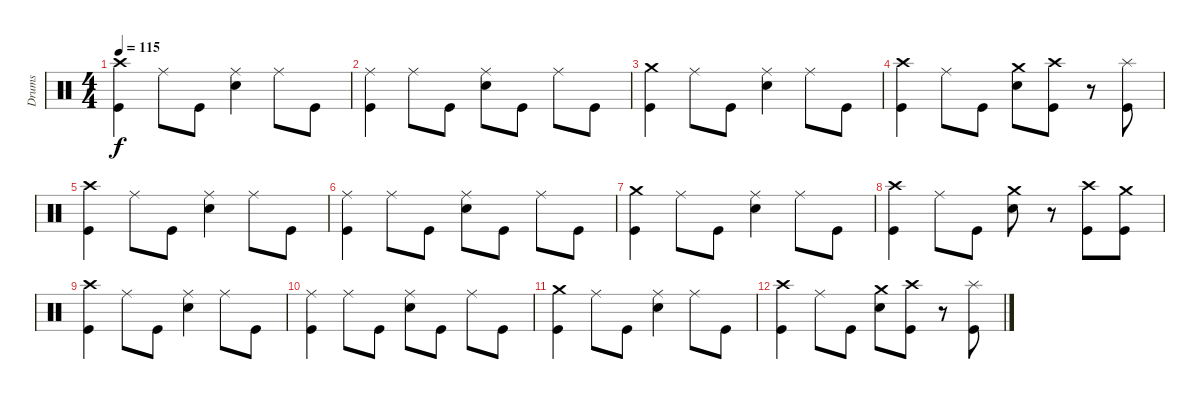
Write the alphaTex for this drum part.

\track ("Drums" "Drums") {instrument percussion}
\staff {score}
\articulation defaults
\ts (4 4)
\tempo 115
\clef neutral
\ks c
("Crash high (hit)" "Kick (hit)").4{dy f volume 7} "Ride (middle)".8 "Kick (hit)".8 ("Ride (middle)" "Snare (hit) 2").4 "Ride (middle)".8 "Kick (hit)".8 |
("Ride (middle)" "Kick (hit)").4 "Ride (middle)".8 "Kick (hit)".8 ("Ride (middle)" "Snare (hit) 2").8 "Kick (hit)".8 "Ride (middle)".8 "Kick (hit)".8 |
("Crash medium (hit)" "Kick (hit)").4 "Ride (middle)".8 "Kick (hit)".8 ("Ride (middle)" "Snare (hit) 2").4 "Ride (middle)".8 "Kick (hit)".8 |
("Crash high (hit)" "Kick (hit)").4 "Ride (middle)".8 "Kick (hit)".8 ("Crash medium (hit)" "Snare (hit) 2").8 ("Crash high (hit)" "Kick (hit)").8 r.8 ("Splash (hit)" "Kick (hit)").8 |
("Crash high (hit)" "Kick (hit)").4{volume 3} "Ride (middle)".8 "Kick (hit)".8 ("Ride (middle)" "Snare (hit) 2").4 "Ride (middle)".8 "Kick (hit)".8 |
("Ride (middle)" "Kick (hit)").4 "Ride (middle)".8 "Kick (hit)".8 ("Ride (middle)" "Snare (hit) 2").8 "Kick (hit)".8 "Ride (middle)".8 "Kick (hit)".8 |
("Crash medium (hit)" "Kick (hit)").4 "Ride (middle)".8 "Kick (hit)".8 ("Ride (middle)" "Snare (hit) 2").4 "Ride (middle)".8 "Kick (hit)".8 |
("Crash high (hit)" "Kick (hit)").4 "Ride (middle)".8 "Kick (hit)".8 ("Crash medium (hit)" "Snare (hit) 2").8 r.8 ("Crash high (hit)" "Kick (hit)").8 ("Crash medium (hit)" "Kick (hit)").8 |
("Crash high (hit)" "Kick (hit)").4{volume 0} "Ride (middle)".8 "Kick (hit)".8 ("Ride (middle)" "Snare (hit) 2").4 "Ride (middle)".8 "Kick (hit)".8 |
("Ride (middle)" "Kick (hit)").4 "Ride (middle)".8 "Kick (hit)".8 ("Ride (middle)" "Snare (hit) 2").8 "Kick (hit)".8 "Ride (middle)".8 "Kick (hit)".8 |
("Crash medium (hit)" "Kick (hit)").4 "Ride (middle)".8 "Kick (hit)".8 ("Ride (middle)" "Snare (hit) 2").4 "Ride (middle)".8 "Kick (hit)".8 |
("Crash high (hit)" "Kick (hit)").4 "Ride (middle)".8 "Kick (hit)".8 ("Crash medium (hit)" "Snare (hit) 2").8 ("Crash high (hit)" "Kick (hit)").8 r.8 ("Splash (hit)" "Kick (hit)").8
